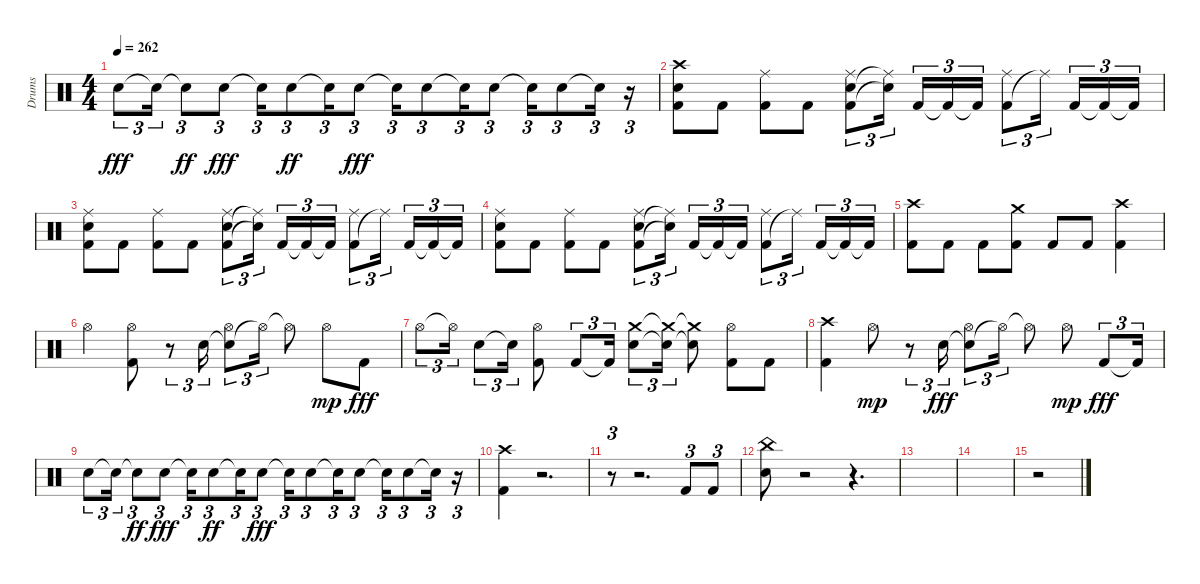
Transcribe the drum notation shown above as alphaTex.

\track ("Drums" "Drums") {instrument percussion}
\staff {score}
\articulation defaults
\ts (4 4)
\tempo 262
\clef neutral
\ks aminor "Snare (hit) 2".8{tu (3 2) dy fff} "Snare (hit) 2"{t}.16{tu (3 2)} "Snare (hit) 2"{t}.8{tu (3 2) dy ff} "Snare (hit) 2".8{tu (3 2) dy fff} "Snare (hit) 2"{t}.16{tu (3 2)} "Snare (hit) 2".8{tu (3 2) dy ff} "Snare (hit) 2"{t}.16{tu (3 2)} "Snare (hit) 2".8{tu (3 2) dy fff} "Snare (hit) 2"{t}.16{tu (3 2)} "Snare (hit) 2".8{tu (3 2)} "Snare (hit) 2"{t}.16{tu (3 2)} "Snare (hit) 2".8{tu (3 2)} "Snare (hit) 2"{t}.16{tu (3 2)} "Snare (hit) 2".8{tu (3 2)} "Snare (hit) 2"{t}.16{tu (3 2)}
r.16{tu (3 2)} |
("Kick (hit) 2" "Snare (hit) 2" "Crash high (hit)").8 "Kick (hit) 2".8 ("Kick (hit) 2" "Ride (middle)").8 "Kick (hit) 2".8 ("Kick (hit) 2" "Snare (hit) 2" "Ride (middle)").8{tu (3 2)} ("Snare (hit) 2"{t} "Ride (middle)"{t}).16{tu (3 2)} "Kick (hit) 2".16{tu (3 2)} "Kick (hit) 2"{t}.16{tu (3 2)} "Kick (hit) 2"{t}.16{tu (3 2)} ("Kick (hit) 2" "Ride (middle)").8{tu (3 2)} "Ride (middle)"{t}.16{tu (3 2)} "Kick (hit) 2".16{tu (3 2)} "Kick (hit) 2"{t}.16{tu (3 2)} "Kick (hit) 2"{t}.16{tu (3 2)} |
("Kick (hit) 2" "Snare (hit) 2" "Ride (middle)").8 "Kick (hit) 2".8 ("Kick (hit) 2" "Ride (middle)").8 "Kick (hit) 2".8 ("Kick (hit) 2" "Snare (hit) 2" "Ride (middle)").8{tu (3 2)} ("Snare (hit) 2"{t} "Ride (middle)"{t}).16{tu (3 2)} "Kick (hit) 2".16{tu (3 2)} "Kick (hit) 2"{t}.16{tu (3 2)} "Kick (hit) 2"{t}.16{tu (3 2)} ("Kick (hit) 2" "Ride (middle)").8{tu (3 2)} "Ride (middle)"{t}.16{tu (3 2)} "Kick (hit) 2".16{tu (3 2)} "Kick (hit) 2"{t}.16{tu (3 2)} "Kick (hit) 2"{t}.16{tu (3 2)} |
("Kick (hit) 2" "Snare (hit) 2" "Ride (middle)").8 "Kick (hit) 2".8 ("Kick (hit) 2" "Ride (middle)").8 "Kick (hit) 2".8 ("Kick (hit) 2" "Snare (hit) 2" "Ride (middle)").8{tu (3 2)} ("Snare (hit) 2"{t} "Ride (middle)"{t}).16{tu (3 2)} "Kick (hit) 2".16{tu (3 2)} "Kick (hit) 2"{t}.16{tu (3 2)} "Kick (hit) 2"{t}.16{tu (3 2)} ("Kick (hit) 2" "Ride (middle)").8{tu (3 2)} "Ride (middle)"{t}.16{tu (3 2)} "Kick (hit) 2".16{tu (3 2)} "Kick (hit) 2"{t}.16{tu (3 2)} "Kick (hit) 2"{t}.16{tu (3 2)} |
("Kick (hit) 2" "Crash high (hit)").8 "Kick (hit) 2".8 "Kick (hit) 2".8 ("Kick (hit) 2" "Crash medium (hit)").8 "Kick (hit) 2".8 "Kick (hit) 2".8 ("Kick (hit) 2" "Crash high (hit)").4 |
"Hi-Hat (open)".4 ("Kick (hit) 2" "Hi-Hat (open)").8 r.8{tu (3 2)} "Snare (hit) 2".16{tu (3 2)} ("Snare (hit) 2"{t} "Hi-Hat (open)").8{tu (3 2)} "Hi-Hat (open)"{t}.16{tu (3 2)} "Hi-Hat (open)"{t}.8 "Hi-Hat (open)".8{dy mp} "Kick (hit) 2".8{dy fff} |
"Hi-Hat (open)".8{tu (3 2)} "Hi-Hat (open)"{t}.16{tu (3 2)} "Snare (hit) 2".8{tu (3 2)} "Snare (hit) 2"{t}.16{tu (3 2)} ("Kick (hit) 2" "Hi-Hat (open)").8 "Kick (hit) 2".8{tu (3 2)} "Kick (hit) 2"{t}.16{tu (3 2)} ("Snare (hit) 2" "Crash medium (hit)").8{tu (3 2)} ("Snare (hit) 2"{t} "Crash medium (hit)"{t}).16{tu (3 2)} ("Snare (hit) 2"{t} "Crash medium (hit)"{t}).8 ("Kick (hit) 2" "Hi-Hat (open)").8 "Kick (hit) 2".8 |
("Kick (hit) 2" "Crash high (hit)").4 "Hi-Hat (open)".8{dy mp} r.8{tu (3 2)} "Snare (hit) 2".16{tu (3 2) dy fff} ("Snare (hit) 2"{t} "Hi-Hat (open)").8{tu (3 2)} "Hi-Hat (open)"{t}.16{tu (3 2)} "Hi-Hat (open)"{t}.8 "Hi-Hat (open)".8{dy mp} "Kick (hit) 2".8{tu (3 2) dy fff} "Kick (hit) 2"{t}.16{tu (3 2)} |
"Snare (hit) 2".8{tu (3 2)} "Snare (hit) 2"{t}.16{tu (3 2)} "Snare (hit) 2"{t}.8{tu (3 2) dy ff} "Snare (hit) 2".8{tu (3 2) dy fff} "Snare (hit) 2"{t}.16{tu (3 2)} "Snare (hit) 2".8{tu (3 2) dy ff} "Snare (hit) 2"{t}.16{tu (3 2)} "Snare (hit) 2".8{tu (3 2) dy fff} "Snare (hit) 2"{t}.16{tu (3 2)} "Snare (hit) 2".8{tu (3 2)} "Snare (hit) 2"{t}.16{tu (3 2)} "Snare (hit) 2".8{tu (3 2)} "Snare (hit) 2"{t}.16{tu (3 2)} "Snare (hit) 2".8{tu (3 2)} "Snare (hit) 2"{t}.16{tu (3 2)} r.16{tu (3 2)} |
("Kick (hit) 2" "Crash high (hit)").4 r.2{d} |
r.8{tu (3 2)} r.2{d} "Kick (hit) 2".8{tu (3 2)} "Kick (hit) 2".8{tu (3 2)} |
("Snare (hit) 2" "China (hit)").8 r.2 r.4{d} |
|
|
r.2
